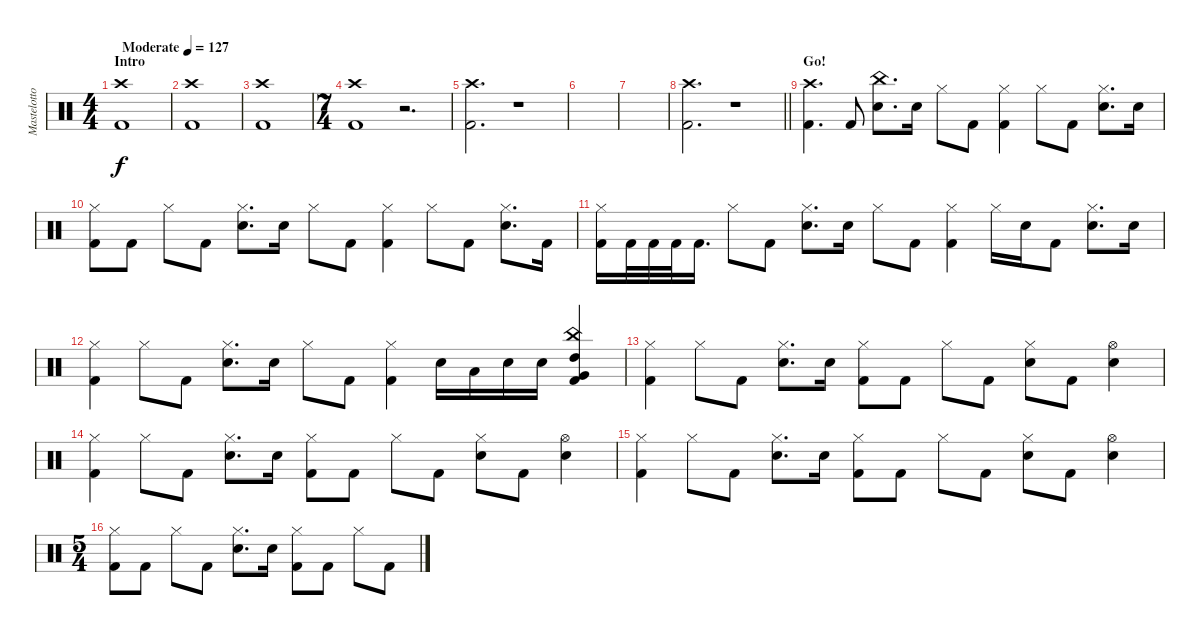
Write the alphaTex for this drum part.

\track ("Mastelotto" "Mastelotto") {instrument percussion}
\staff {score}
\articulation defaults
\ts (4 4)
\section ("" "Intro")
\tempo (127 "Moderate")
\clef neutral
\ks c
("Crash high (hit)" "Kick (hit) 2").1{dy f} |
("Crash high (hit)" "Kick (hit) 2").1 |
("Crash high (hit)" "Kick (hit) 2").1 |
\ts (7 4)
("Crash high (hit)" "Kick (hit) 2").1 r.2{d} |
("Crash high (hit)" "Kick (hit) 2").2{d} r.1 |
|
|
\barLineRight lightlight
("Crash high (hit)" "Kick (hit) 2").2{d} r.1 |
\section ("" "Go!")
("Crash high (hit)" "Kick (hit) 2").4{d} "Kick (hit) 2".8 ("China (hit)" "Electric Snare (hit)").8{d} "Electric Snare (hit)".16 "Hi-Hat (closed)".8 "Kick (hit) 2".8 ("Hi-Hat (closed)" "Kick (hit) 2").4 "Hi-Hat (closed)".8 "Kick (hit) 2".8 ("Hi-Hat (closed)" "Electric Snare (hit)").8{d} "Electric Snare (hit)".16 |
("Hi-Hat (closed)" "Kick (hit) 2").8 "Kick (hit) 2".8 "Hi-Hat (closed)".8 "Kick (hit) 2".8 ("Hi-Hat (closed)" "Electric Snare (hit)").8{d} "Electric Snare (hit)".16 "Hi-Hat (closed)".8 "Kick (hit) 2".8 ("Hi-Hat (closed)" "Kick (hit) 2").4 "Hi-Hat (closed)".8 "Kick (hit) 2".8 ("Hi-Hat (closed)" "Electric Snare (hit)").8{d} "Kick (hit) 2".16 |
("Hi-Hat (closed)" "Kick (hit) 2").16 "Kick (hit) 2".32 "Kick (hit) 2".32 "Kick (hit) 2".32 "Kick (hit) 2".16{d} "Hi-Hat (closed)".8 "Kick (hit) 2".8 ("Hi-Hat (closed)" "Electric Snare (hit)").8{d} "Electric Snare (hit)".16 "Hi-Hat (closed)".8 "Kick (hit) 2".8 ("Hi-Hat (closed)" "Kick (hit) 2").4 "Hi-Hat (closed)".16 "Electric Snare (hit)".16 "Kick (hit) 2".8 ("Hi-Hat (closed)" "Electric Snare (hit)").8{d} "Electric Snare (hit)".16 |
("Hi-Hat (closed)" "Kick (hit) 2").4 "Hi-Hat (closed)".8 "Kick (hit) 2".8 ("Hi-Hat (closed)" "Electric Snare (hit)").8{d} "Electric Snare (hit)".16 "Hi-Hat (closed)".8 "Kick (hit) 2".8 ("Hi-Hat (closed)" "Kick (hit) 2").4 "Electric Snare (hit)".16 "Low Floor Tom (hit)".16 "Electric Snare (hit)".16 "Electric Snare (hit)".16 ("China (hit)" "High Tom (hit)" "Very Low Tom (hit)" "Kick (hit) 2").4 |
("Hi-Hat (closed)" "Kick (hit) 2").4 "Hi-Hat (closed)".8 "Kick (hit) 2".8 ("Hi-Hat (closed)" "Electric Snare (hit)").8{d} "Electric Snare (hit)".16 ("Hi-Hat (closed)" "Kick (hit) 2").8 "Kick (hit) 2".8 "Hi-Hat (closed)".8 "Kick (hit) 2".8 ("Hi-Hat (closed)" "Electric Snare (hit)").8 "Kick (hit) 2".8 ("Hi-Hat (open)" "Electric Snare (hit)").4 |
("Hi-Hat (closed)" "Kick (hit) 2").4 "Hi-Hat (closed)".8 "Kick (hit) 2".8 ("Hi-Hat (closed)" "Electric Snare (hit)").8{d} "Electric Snare (hit)".16 ("Hi-Hat (closed)" "Kick (hit) 2").8 "Kick (hit) 2".8 "Hi-Hat (closed)".8 "Kick (hit) 2".8 ("Hi-Hat (closed)" "Electric Snare (hit)").8 "Kick (hit) 2".8 ("Hi-Hat (open)" "Electric Snare (hit)").4 |
("Hi-Hat (closed)" "Kick (hit) 2").4 "Hi-Hat (closed)".8 "Kick (hit) 2".8 ("Hi-Hat (closed)" "Electric Snare (hit)").8{d} "Electric Snare (hit)".16 ("Hi-Hat (closed)" "Kick (hit) 2").8 "Kick (hit) 2".8 "Hi-Hat (closed)".8 "Kick (hit) 2".8 ("Hi-Hat (closed)" "Electric Snare (hit)").8 "Kick (hit) 2".8 ("Hi-Hat (open)" "Electric Snare (hit)").4 |
\ts (5 4)
("Hi-Hat (closed)" "Kick (hit) 2").8 "Kick (hit) 2".8 "Hi-Hat (closed)".8 "Kick (hit) 2".8 ("Hi-Hat (closed)" "Electric Snare (hit)").8{d} "Electric Snare (hit)".16 ("Hi-Hat (closed)" "Kick (hit) 2").8 "Kick (hit) 2".8 "Hi-Hat (closed)".8 "Kick (hit) 2".8
